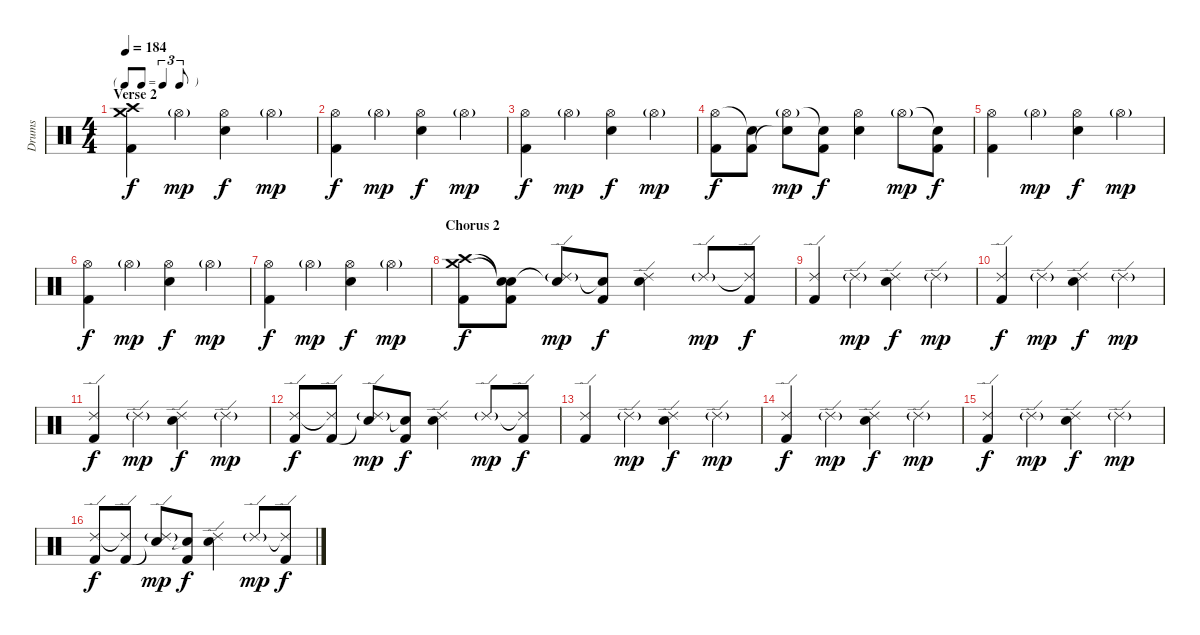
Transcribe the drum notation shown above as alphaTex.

\track ("Drums" "Drums") {instrument percussion}
\staff {score}
\articulation defaults
\ts (4 4)
\tf triplet8th
\section ("" "Verse 2")
\tempo 184
\clef neutral
\ks c
("Crash high (hit)" "Crash medium (hit)" "Kick (hit) 2").4{dy f} "Hi-Hat (open)"{g}.4{dy mp} ("Hi-Hat (open)" "Electric Snare (hit)").4{dy f} "Hi-Hat (open)"{g}.4{dy mp} |
("Hi-Hat (open)" "Kick (hit) 2").4{dy f} "Hi-Hat (open)"{g}.4{dy mp} ("Hi-Hat (open)" "Electric Snare (hit)").4{dy f} "Hi-Hat (open)"{g}.4{dy mp} |
("Hi-Hat (open)" "Kick (hit) 2").4{dy f} "Hi-Hat (open)"{g}.4{dy mp} ("Hi-Hat (open)" "Electric Snare (hit)").4{dy f} "Hi-Hat (open)"{g}.4{dy mp} |
("Hi-Hat (open)" "Kick (hit) 2").8{dy f} ("Snare (hit)"{t} "Kick (hit) 2").8 ("Hi-Hat (open)"{g} "Snare (hit)"{t}).8{dy mp} ("Snare (hit)"{t} "Kick (hit) 2").8{dy f} ("Hi-Hat (open)" "Electric Snare (hit)").4 "Hi-Hat (open)"{g}.8{dy mp} ("Snare (hit)"{t} "Kick (hit) 2").8{dy f} |
("Hi-Hat (open)" "Kick (hit) 2").4 "Hi-Hat (open)"{g}.4{dy mp} ("Hi-Hat (open)" "Electric Snare (hit)").4{dy f} "Hi-Hat (open)"{g}.4{dy mp} |
("Hi-Hat (open)" "Kick (hit) 2").4{dy f} "Hi-Hat (open)"{g}.4{dy mp} ("Hi-Hat (open)" "Electric Snare (hit)").4{dy f} "Hi-Hat (open)"{g}.4{dy mp} |
("Hi-Hat (open)" "Kick (hit) 2").4{dy f} "Hi-Hat (open)"{g}.4{dy mp} ("Hi-Hat (open)" "Electric Snare (hit)").4{dy f} "Hi-Hat (open)"{g}.4{dy mp} |
\section ("" "Chorus 2")
("Crash high (hit)" "Crash medium (hit)" "Kick (hit) 2").8{dy f} ("Snare (hit)"{t} "Snare (hit)"{t} "Kick (hit) 2").8 ("Ride (edge) 2"{g} "Snare (hit)"{t}).8{dy mp} ("Snare (hit)"{t} "Kick (hit) 2").8{dy f} ("Ride (edge) 2" "Electric Snare (hit)").4 "Ride (edge) 2"{g}.8{dy mp} ("Ride (edge) 2"{t} "Kick (hit) 2").8{dy f} |
("Ride (edge) 2" "Kick (hit) 2").4 "Ride (edge) 2"{g}.4{dy mp} ("Ride (edge) 2" "Electric Snare (hit)").4{dy f} "Ride (edge) 2"{g}.4{dy mp} |
("Ride (edge) 2" "Kick (hit) 2").4{dy f} "Ride (edge) 2"{g}.4{dy mp} ("Ride (edge) 2" "Electric Snare (hit)").4{dy f} "Ride (edge) 2"{g}.4{dy mp} |
("Ride (edge) 2" "Kick (hit) 2").4{dy f} "Ride (edge) 2"{g}.4{dy mp} ("Ride (edge) 2" "Electric Snare (hit)").4{dy f} "Ride (edge) 2"{g}.4{dy mp} |
("Ride (edge) 2" "Kick (hit) 2").8{dy f} ("Ride (edge) 2"{t} "Kick (hit) 2").8 ("Ride (edge) 2"{g} "Snare (hit)"{t}).8{dy mp} ("Snare (hit)"{t} "Kick (hit) 2").8{dy f} ("Ride (edge) 2" "Electric Snare (hit)").4 "Ride (edge) 2"{g}.8{dy mp} ("Ride (edge) 2"{t} "Kick (hit) 2").8{dy f} |
("Ride (edge) 2" "Kick (hit) 2").4 "Ride (edge) 2"{g}.4{dy mp} ("Ride (edge) 2" "Electric Snare (hit)").4{dy f} "Ride (edge) 2"{g}.4{dy mp} |
("Ride (edge) 2" "Kick (hit) 2").4{dy f} "Ride (edge) 2"{g}.4{dy mp} ("Ride (edge) 2" "Electric Snare (hit)").4{dy f} "Ride (edge) 2"{g}.4{dy mp} |
("Ride (edge) 2" "Kick (hit) 2").4{dy f} "Ride (edge) 2"{g}.4{dy mp} ("Ride (edge) 2" "Electric Snare (hit)").4{dy f} "Ride (edge) 2"{g}.4{dy mp} |
("Ride (edge) 2" "Kick (hit) 2").8{dy f} ("Ride (edge) 2"{t} "Kick (hit) 2").8 ("Ride (edge) 2"{g} "Snare (hit)"{t}).8{dy mp} ("Snare (hit)"{t} "Kick (hit) 2").8{dy f} ("Ride (edge) 2" "Electric Snare (hit)").4 "Ride (edge) 2"{g}.8{dy mp} ("Ride (edge) 2"{t} "Kick (hit) 2").8{dy f}
